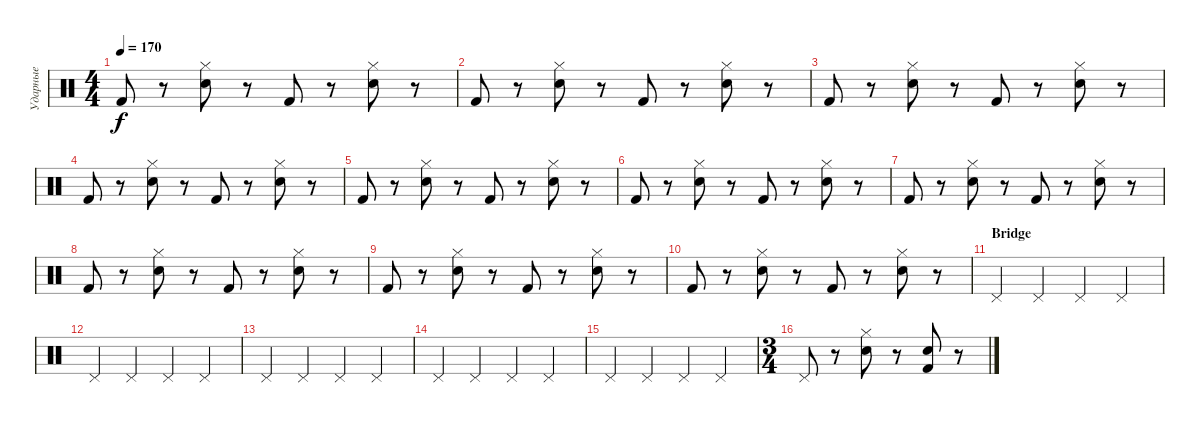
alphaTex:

\track ("Ударные" "Ударные") {instrument percussion}
\staff {score}
\articulation defaults
\ts (4 4)
\tempo 170
\clef neutral
\ks c "Kick (hit) 2".8{dy f}
r.8 ("Hi-Hat (closed)" "Electric Snare (hit)").8 r.8 "Kick (hit) 2".8 r.8 ("Hi-Hat (closed)" "Electric Snare (hit)").8 r.8 |
"Kick (hit) 2".8 r.8 ("Hi-Hat (closed)" "Electric Snare (hit)").8 r.8 "Kick (hit) 2".8 r.8 ("Hi-Hat (closed)" "Electric Snare (hit)").8 r.8 |
"Kick (hit) 2".8 r.8 ("Hi-Hat (closed)" "Electric Snare (hit)").8 r.8 "Kick (hit) 2".8 r.8 ("Hi-Hat (closed)" "Electric Snare (hit)").8 r.8 |
"Kick (hit) 2".8 r.8 ("Hi-Hat (closed)" "Electric Snare (hit)").8 r.8 "Kick (hit) 2".8 r.8 ("Hi-Hat (closed)" "Electric Snare (hit)").8 r.8 |
"Kick (hit) 2".8 r.8 ("Hi-Hat (closed)" "Electric Snare (hit)").8 r.8 "Kick (hit) 2".8 r.8 ("Hi-Hat (closed)" "Electric Snare (hit)").8 r.8 |
"Kick (hit) 2".8 r.8 ("Hi-Hat (closed)" "Electric Snare (hit)").8 r.8 "Kick (hit) 2".8 r.8 ("Hi-Hat (closed)" "Electric Snare (hit)").8 r.8 |
"Kick (hit) 2".8 r.8 ("Hi-Hat (closed)" "Electric Snare (hit)").8 r.8 "Kick (hit) 2".8 r.8 ("Hi-Hat (closed)" "Electric Snare (hit)").8 r.8 |
"Kick (hit) 2".8 r.8 ("Hi-Hat (closed)" "Electric Snare (hit)").8 r.8 "Kick (hit) 2".8 r.8 ("Hi-Hat (closed)" "Electric Snare (hit)").8 r.8 |
"Kick (hit) 2".8 r.8 ("Hi-Hat (closed)" "Electric Snare (hit)").8 r.8 "Kick (hit) 2".8 r.8 ("Hi-Hat (closed)" "Electric Snare (hit)").8 r.8 |
"Kick (hit) 2".8 r.8 ("Hi-Hat (closed)" "Electric Snare (hit)").8 r.8 "Kick (hit) 2".8 r.8 ("Hi-Hat (closed)" "Electric Snare (hit)").8 r.8 |
\section ("" "Bridge")
"Pedal Hi-Hat (hit)".4 "Pedal Hi-Hat (hit)".4 "Pedal Hi-Hat (hit)".4 "Pedal Hi-Hat (hit)".4 |
"Pedal Hi-Hat (hit)".4 "Pedal Hi-Hat (hit)".4 "Pedal Hi-Hat (hit)".4 "Pedal Hi-Hat (hit)".4 |
"Pedal Hi-Hat (hit)".4 "Pedal Hi-Hat (hit)".4 "Pedal Hi-Hat (hit)".4 "Pedal Hi-Hat (hit)".4 |
"Pedal Hi-Hat (hit)".4 "Pedal Hi-Hat (hit)".4 "Pedal Hi-Hat (hit)".4 "Pedal Hi-Hat (hit)".4 |
"Pedal Hi-Hat (hit)".4 "Pedal Hi-Hat (hit)".4 "Pedal Hi-Hat (hit)".4 "Pedal Hi-Hat (hit)".4 |
\ts (3 4)
"Pedal Hi-Hat (hit)".8 r.8 ("Electric Snare (hit)" "Hi-Hat (closed)").8 r.8 ("Snare (hit) 2" "Kick (hit) 2").8{bd 120} r.8
